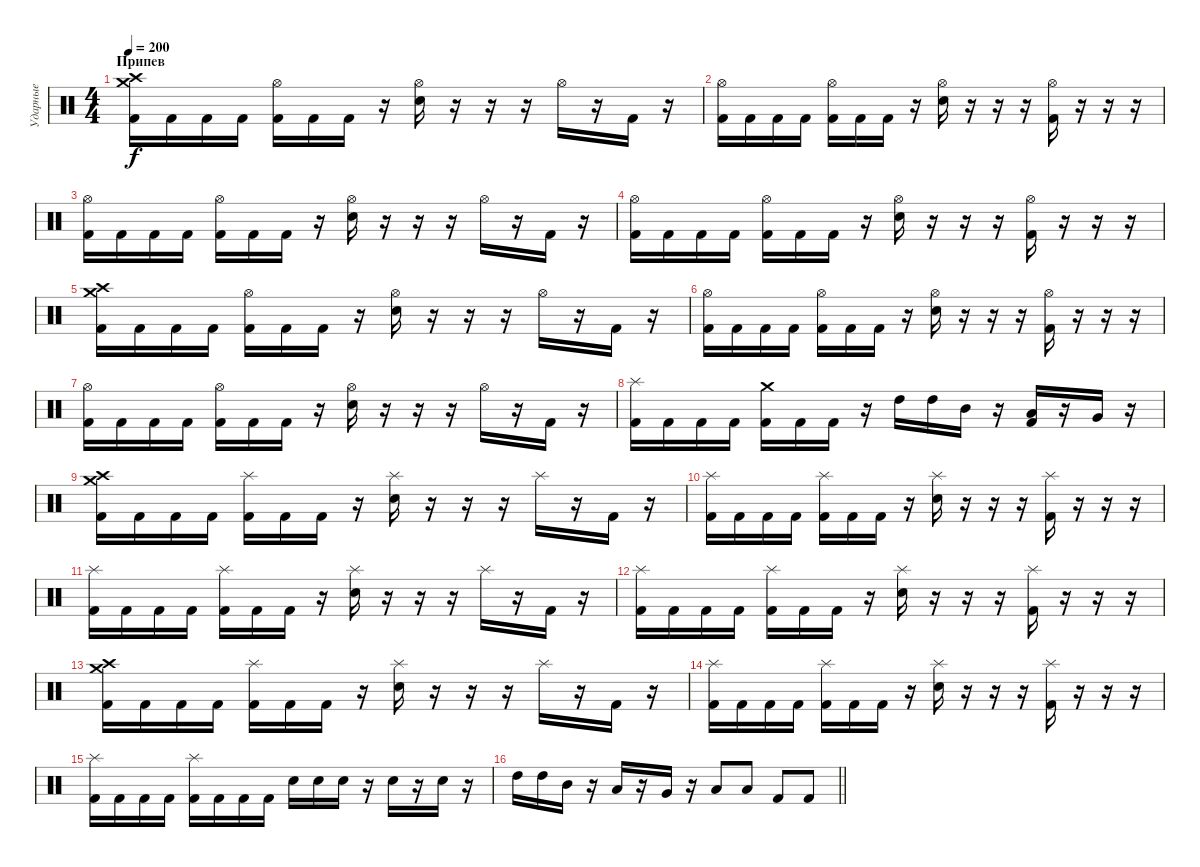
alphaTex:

\track ("Ударные" "Ударные") {instrument percussion}
\staff {score}
\articulation defaults
\ts (4 4)
\section ("" "Припев")
\tempo 200
\clef neutral
\ks c
("Kick (hit) 2" "Crash high (hit)" "Crash medium (hit)").16{dy f} "Kick (hit) 2".16 "Kick (hit) 2".16 "Kick (hit) 2".16 ("Kick (hit) 2" "Hi-Hat (open)").16 "Kick (hit) 2".16 "Kick (hit) 2".16 r.16 ("Electric Snare (hit)" "Hi-Hat (open)").16 r.16 r.16 r.16 "Hi-Hat (open)".16 r.16 "Kick (hit) 2".16 r.16 |
("Kick (hit) 2" "Hi-Hat (open)").16 "Kick (hit) 2".16 "Kick (hit) 2".16 "Kick (hit) 2".16 ("Kick (hit) 2" "Hi-Hat (open)").16 "Kick (hit) 2".16 "Kick (hit) 2".16 r.16 ("Electric Snare (hit)" "Hi-Hat (open)").16 r.16 r.16 r.16 ("Kick (hit) 2" "Hi-Hat (open)").16 r.16 r.16 r.16 |
("Kick (hit) 2" "Hi-Hat (open)").16 "Kick (hit) 2".16 "Kick (hit) 2".16 "Kick (hit) 2".16 ("Kick (hit) 2" "Hi-Hat (open)").16 "Kick (hit) 2".16 "Kick (hit) 2".16 r.16 ("Electric Snare (hit)" "Hi-Hat (open)").16 r.16 r.16 r.16 "Hi-Hat (open)".16 r.16 "Kick (hit) 2".16 r.16 |
("Kick (hit) 2" "Hi-Hat (open)").16 "Kick (hit) 2".16 "Kick (hit) 2".16 "Kick (hit) 2".16 ("Kick (hit) 2" "Hi-Hat (open)").16 "Kick (hit) 2".16 "Kick (hit) 2".16 r.16 ("Electric Snare (hit)" "Hi-Hat (open)").16 r.16 r.16 r.16 ("Kick (hit) 2" "Hi-Hat (open)").16 r.16 r.16 r.16 |
("Kick (hit) 2" "Crash high (hit)" "Crash medium (hit)").16 "Kick (hit) 2".16 "Kick (hit) 2".16 "Kick (hit) 2".16 ("Kick (hit) 2" "Hi-Hat (open)").16 "Kick (hit) 2".16 "Kick (hit) 2".16 r.16 ("Electric Snare (hit)" "Hi-Hat (open)").16 r.16 r.16 r.16 "Hi-Hat (open)".16 r.16 "Kick (hit) 2".16 r.16 |
("Kick (hit) 2" "Hi-Hat (open)").16 "Kick (hit) 2".16 "Kick (hit) 2".16 "Kick (hit) 2".16 ("Kick (hit) 2" "Hi-Hat (open)").16 "Kick (hit) 2".16 "Kick (hit) 2".16 r.16 ("Electric Snare (hit)" "Hi-Hat (open)").16 r.16 r.16 r.16 ("Kick (hit) 2" "Hi-Hat (open)").16 r.16 r.16 r.16 |
("Kick (hit) 2" "Hi-Hat (open)").16 "Kick (hit) 2".16 "Kick (hit) 2".16 "Kick (hit) 2".16 ("Kick (hit) 2" "Hi-Hat (open)").16 "Kick (hit) 2".16 "Kick (hit) 2".16 r.16 ("Electric Snare (hit)" "Hi-Hat (open)").16 r.16 r.16 r.16 "Hi-Hat (open)".16 r.16 "Kick (hit) 2".16 r.16 |
("Kick (hit) 2" "Splash (hit)").16 "Kick (hit) 2".16 "Kick (hit) 2".16 "Kick (hit) 2".16 ("Kick (hit) 2" "Crash medium (hit)").16 "Kick (hit) 2".16 "Kick (hit) 2".16 r.16 "High Tom (hit)".16 "High Tom (hit)".16 "Mid Tom (hit)".16 r.16 ("Kick (hit) 2" "Low Tom (hit)").16 r.16 "Very Low Tom (hit)".16 r.16 |
("Kick (hit) 2" "Crash high (hit)" "Crash medium (hit)").16 "Kick (hit) 2".16 "Kick (hit) 2".16 "Kick (hit) 2".16 ("Kick (hit) 2" "Splash (hit)").16 "Kick (hit) 2".16 "Kick (hit) 2".16 r.16 ("Electric Snare (hit)" "Splash (hit)").16 r.16 r.16 r.16 "Splash (hit)".16 r.16 "Kick (hit) 2".16 r.16 |
("Kick (hit) 2" "Splash (hit)").16 "Kick (hit) 2".16 "Kick (hit) 2".16 "Kick (hit) 2".16 ("Kick (hit) 2" "Splash (hit)").16 "Kick (hit) 2".16 "Kick (hit) 2".16 r.16 ("Electric Snare (hit)" "Splash (hit)").16 r.16 r.16 r.16 ("Kick (hit) 2" "Splash (hit)").16 r.16 r.16 r.16 |
("Kick (hit) 2" "Splash (hit)").16 "Kick (hit) 2".16 "Kick (hit) 2".16 "Kick (hit) 2".16 ("Kick (hit) 2" "Splash (hit)").16 "Kick (hit) 2".16 "Kick (hit) 2".16 r.16 ("Electric Snare (hit)" "Splash (hit)").16 r.16 r.16 r.16 "Splash (hit)".16 r.16 "Kick (hit) 2".16 r.16 |
("Kick (hit) 2" "Splash (hit)").16 "Kick (hit) 2".16 "Kick (hit) 2".16 "Kick (hit) 2".16 ("Kick (hit) 2" "Splash (hit)").16 "Kick (hit) 2".16 "Kick (hit) 2".16 r.16 ("Electric Snare (hit)" "Splash (hit)").16 r.16 r.16 r.16 ("Kick (hit) 2" "Splash (hit)").16 r.16 r.16 r.16 |
("Kick (hit) 2" "Crash high (hit)" "Crash medium (hit)").16 "Kick (hit) 2".16 "Kick (hit) 2".16 "Kick (hit) 2".16 ("Kick (hit) 2" "Splash (hit)").16 "Kick (hit) 2".16 "Kick (hit) 2".16 r.16 ("Electric Snare (hit)" "Splash (hit)").16 r.16 r.16 r.16 "Splash (hit)".16 r.16 "Kick (hit) 2".16 r.16 |
("Kick (hit) 2" "Splash (hit)").16 "Kick (hit) 2".16 "Kick (hit) 2".16 "Kick (hit) 2".16 ("Kick (hit) 2" "Splash (hit)").16 "Kick (hit) 2".16 "Kick (hit) 2".16 r.16 ("Electric Snare (hit)" "Splash (hit)").16 r.16 r.16 r.16 ("Kick (hit) 2" "Splash (hit)").16 r.16 r.16 r.16 |
("Kick (hit) 2" "Splash (hit)").16 "Kick (hit) 2".16 "Kick (hit) 2".16 "Kick (hit) 2".16 ("Kick (hit) 2" "Splash (hit)").16 "Kick (hit) 2".16 "Kick (hit) 2".16 "Kick (hit) 2".16 "Electric Snare (hit)".16 "Electric Snare (hit)".16 "Electric Snare (hit)".16 r.16 "Electric Snare (hit)".16 r.16 "Electric Snare (hit)".16 r.16 |
\barLineRight lightlight "High Tom (hit)".16 "High Tom (hit)".16 "Mid Tom (hit)".16
r.16 "Low Tom (hit)".16 r.16 "Very Low Tom (hit)".16 r.16 "Low Floor Tom (hit)".8 "Low Floor Tom (hit)".8 "Kick (hit) 2".8 "Kick (hit) 2".8
